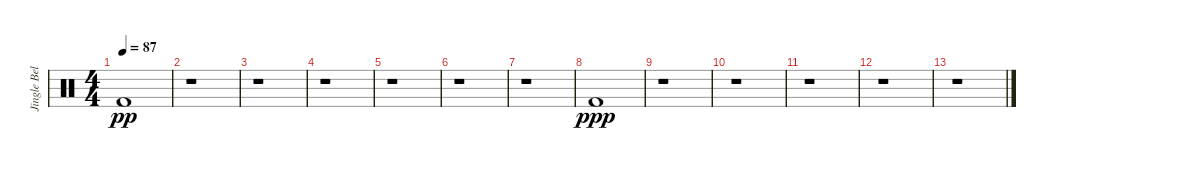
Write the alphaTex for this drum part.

\track ("Jingle Bell" "Jingle Bel") {instrument percussion}
\staff {score}
\articulation defaults
\ts (4 4)
\tempo 87
\clef neutral
\ks c "Kick (hit) 2".1{dy pp}
|
r.1 |
r.1 |
r.1 |
r.1 |
r.1 |
r.1 |
"Kick (hit) 2".1{dy ppp} |
r.1 |
r.1 |
r.1 |
r.1 |
r.1
